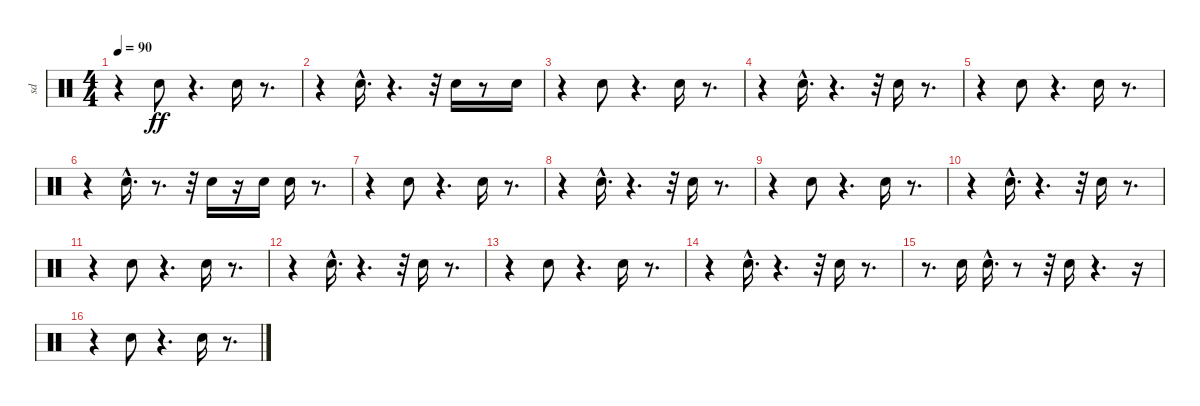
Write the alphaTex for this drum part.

\track ("sd" "sd") {instrument percussion}
\staff {score}
\articulation defaults
\ts (4 4)
\tempo 90
\clef neutral
\ks c
r.4{dy ff} "Snare (hit) 2".8 r.4{d} "Snare (hit) 2".16 r.8{d} |
r.4 "Snare (hit) 2"{hac}.16{d} r.4{d} r.32 "Snare (hit) 2".16 r.8 "Snare (hit) 2".16 |
r.4 "Snare (hit) 2".8 r.4{d} "Snare (hit) 2".16 r.8{d} |
r.4 "Snare (hit) 2"{hac}.16{d} r.4{d} r.32 "Snare (hit) 2".16 r.8{d} |
r.4 "Snare (hit) 2".8 r.4{d} "Snare (hit) 2".16 r.8{d} |
r.4 "Snare (hit) 2"{hac}.16{d} r.8{d} r.32 "Snare (hit) 2".16 r.16 "Snare (hit) 2".16 "Snare (hit) 2".16 r.8{d} |
r.4 "Snare (hit) 2".8 r.4{d} "Snare (hit) 2".16 r.8{d} |
r.4 "Snare (hit) 2"{hac}.16{d} r.4{d} r.32 "Snare (hit) 2".16 r.8{d} |
r.4 "Snare (hit) 2".8 r.4{d} "Snare (hit) 2".16 r.8{d} |
r.4 "Snare (hit) 2"{hac}.16{d} r.4{d} r.32 "Snare (hit) 2".16 r.8{d} |
r.4 "Snare (hit) 2".8 r.4{d} "Snare (hit) 2".16 r.8{d} |
r.4 "Snare (hit) 2"{hac}.16{d} r.4{d} r.32 "Snare (hit) 2".16 r.8{d} |
r.4 "Snare (hit) 2".8 r.4{d} "Snare (hit) 2".16 r.8{d} |
r.4 "Snare (hit) 2"{hac}.16{d} r.4{d} r.32 "Snare (hit) 2".16 r.8{d} |
r.8{d} "Snare (hit) 2".16 "Snare (hit) 2"{hac}.16{d} r.8 r.32 "Snare (hit) 2".16 r.4{d} r.16 |
r.4 "Snare (hit) 2".8 r.4{d} "Snare (hit) 2".16 r.8{d}
